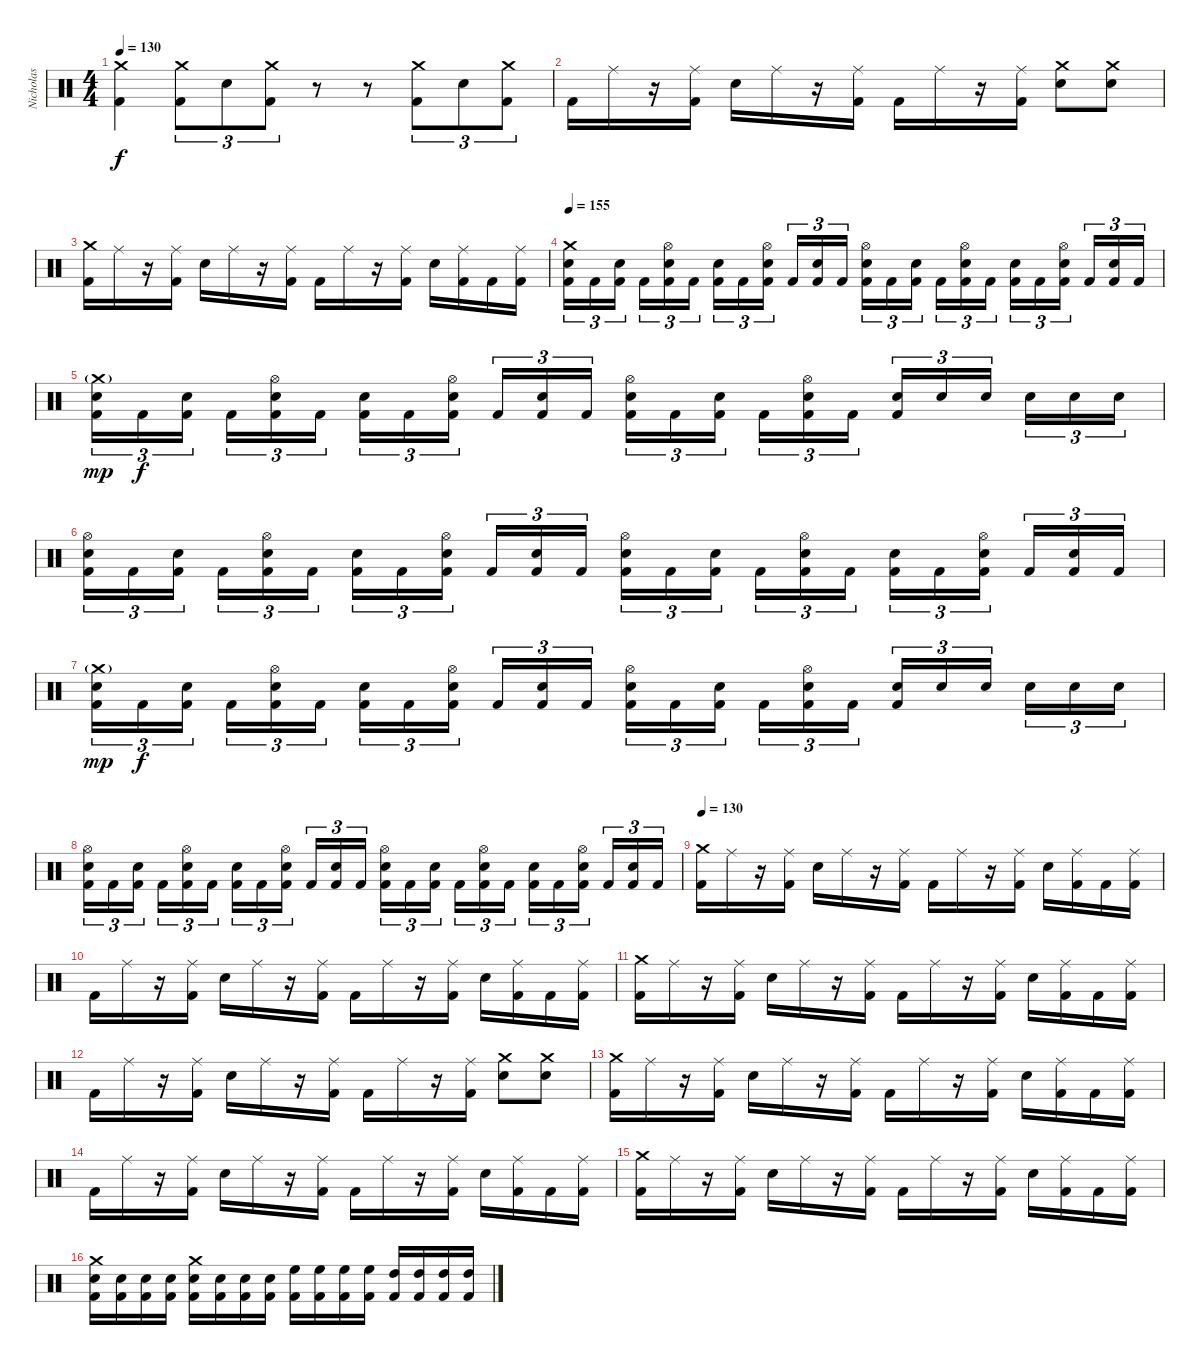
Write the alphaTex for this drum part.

\track ("Nicholas" "Nicholas") {instrument percussion}
\staff {score}
\articulation defaults
\ts (4 4)
\tempo 130
\clef neutral
\ks c
("Crash medium (hit)" "Kick (hit) 2").4{dy f} ("Crash medium (hit)" "Kick (hit) 2").8{tu (3 2)} "Snare (hit) 2".8{tu (3 2)} ("Crash medium (hit)" "Kick (hit) 2").8{tu (3 2)} r.8 r.8 ("Crash medium (hit)" "Kick (hit) 2").8{tu (3 2)} "Snare (hit) 2".8{tu (3 2)} ("Crash medium (hit)" "Kick (hit) 2").8{tu (3 2)} |
"Kick (hit) 2".16 "Ride (middle)".16 r.16 ("Ride (middle)" "Kick (hit) 2").16 "Snare (hit) 2".16 "Ride (middle)".16 r.16 ("Ride (middle)" "Kick (hit) 2").16 "Kick (hit) 2".16 "Ride (middle)".16 r.16 ("Ride (middle)" "Kick (hit) 2").16 ("Crash medium (hit)" "Snare (hit) 2").8 ("Crash medium (hit)" "Snare (hit) 2").8 |
("Crash medium (hit)" "Kick (hit) 2").16 "Ride (middle)".16 r.16 ("Ride (middle)" "Kick (hit) 2").16 "Snare (hit) 2".16 "Ride (middle)".16 r.16 ("Ride (middle)" "Kick (hit) 2").16 "Kick (hit) 2".16 "Ride (middle)".16 r.16 ("Ride (middle)" "Kick (hit) 2").16 "Snare (hit) 2".16 ("Ride (middle)" "Kick (hit) 2").16 "Kick (hit) 2".16 ("Ride (middle)" "Kick (hit) 2").16 |
\tempo 155
("Crash medium (hit)" "Snare (hit) 2" "Kick (hit) 2").16{tu (3 2)} "Kick (hit) 2".16{tu (3 2)} ("Snare (hit) 2" "Kick (hit) 2").16{tu (3 2) beam splitsecondary} "Kick (hit) 2".16{tu (3 2)} ("Hi-Hat (open)" "Snare (hit) 2" "Kick (hit) 2").16{tu (3 2)} "Kick (hit) 2".16{tu (3 2)} ("Snare (hit) 2" "Kick (hit) 2").16{tu (3 2)} "Kick (hit) 2".16{tu (3 2)} ("Hi-Hat (open)" "Snare (hit) 2" "Kick (hit) 2").16{tu (3 2) beam splitsecondary} "Kick (hit) 2".16{tu (3 2)} ("Snare (hit) 2" "Kick (hit) 2").16{tu (3 2)} "Kick (hit) 2".16{tu (3 2)} ("Hi-Hat (open)" "Snare (hit) 2" "Kick (hit) 2").16{tu (3 2)} "Kick (hit) 2".16{tu (3 2)} ("Snare (hit) 2" "Kick (hit) 2").16{tu (3 2) beam splitsecondary} "Kick (hit) 2".16{tu (3 2)} ("Hi-Hat (open)" "Snare (hit) 2" "Kick (hit) 2").16{tu (3 2)} "Kick (hit) 2".16{tu (3 2)} ("Snare (hit) 2" "Kick (hit) 2").16{tu (3 2)} "Kick (hit) 2".16{tu (3 2)} ("Hi-Hat (open)" "Snare (hit) 2" "Kick (hit) 2").16{tu (3 2) beam splitsecondary} "Kick (hit) 2".16{tu (3 2)} ("Snare (hit) 2" "Kick (hit) 2").16{tu (3 2)} "Kick (hit) 2".16{tu (3 2)} |
("Crash medium (hit)"{g} "Snare (hit) 2" "Kick (hit) 2").16{tu (3 2) dy mp} "Kick (hit) 2".16{tu (3 2) dy f} ("Snare (hit) 2" "Kick (hit) 2").16{tu (3 2) beam splitsecondary} "Kick (hit) 2".16{tu (3 2)} ("Hi-Hat (open)" "Snare (hit) 2" "Kick (hit) 2").16{tu (3 2)} "Kick (hit) 2".16{tu (3 2)} ("Snare (hit) 2" "Kick (hit) 2").16{tu (3 2)} "Kick (hit) 2".16{tu (3 2)} ("Hi-Hat (open)" "Snare (hit) 2" "Kick (hit) 2").16{tu (3 2) beam splitsecondary} "Kick (hit) 2".16{tu (3 2)} ("Snare (hit) 2" "Kick (hit) 2").16{tu (3 2)} "Kick (hit) 2".16{tu (3 2)} ("Hi-Hat (open)" "Snare (hit) 2" "Kick (hit) 2").16{tu (3 2)} "Kick (hit) 2".16{tu (3 2)} ("Snare (hit) 2" "Kick (hit) 2").16{tu (3 2) beam splitsecondary} "Kick (hit) 2".16{tu (3 2)} ("Hi-Hat (open)" "Snare (hit) 2" "Kick (hit) 2").16{tu (3 2)} "Kick (hit) 2".16{tu (3 2)} ("Snare (hit) 2" "Kick (hit) 2").16{tu (3 2)} "Snare (hit) 2".16{tu (3 2)} "Snare (hit) 2".16{tu (3 2) beam splitsecondary} "Snare (hit) 2".16{tu (3 2)} "Snare (hit) 2".16{tu (3 2)} "Snare (hit) 2".16{tu (3 2)} |
("Hi-Hat (open)" "Snare (hit) 2" "Kick (hit) 2").16{tu (3 2)} "Kick (hit) 2".16{tu (3 2)} ("Snare (hit) 2" "Kick (hit) 2").16{tu (3 2) beam splitsecondary} "Kick (hit) 2".16{tu (3 2)} ("Hi-Hat (open)" "Snare (hit) 2" "Kick (hit) 2").16{tu (3 2)} "Kick (hit) 2".16{tu (3 2)} ("Snare (hit) 2" "Kick (hit) 2").16{tu (3 2)} "Kick (hit) 2".16{tu (3 2)} ("Hi-Hat (open)" "Snare (hit) 2" "Kick (hit) 2").16{tu (3 2) beam splitsecondary} "Kick (hit) 2".16{tu (3 2)} ("Snare (hit) 2" "Kick (hit) 2").16{tu (3 2)} "Kick (hit) 2".16{tu (3 2)} ("Hi-Hat (open)" "Snare (hit) 2" "Kick (hit) 2").16{tu (3 2)} "Kick (hit) 2".16{tu (3 2)} ("Snare (hit) 2" "Kick (hit) 2").16{tu (3 2) beam splitsecondary} "Kick (hit) 2".16{tu (3 2)} ("Hi-Hat (open)" "Snare (hit) 2" "Kick (hit) 2").16{tu (3 2)} "Kick (hit) 2".16{tu (3 2)} ("Snare (hit) 2" "Kick (hit) 2").16{tu (3 2)} "Kick (hit) 2".16{tu (3 2)} ("Hi-Hat (open)" "Snare (hit) 2" "Kick (hit) 2").16{tu (3 2) beam splitsecondary} "Kick (hit) 2".16{tu (3 2)} ("Snare (hit) 2" "Kick (hit) 2").16{tu (3 2)} "Kick (hit) 2".16{tu (3 2)} |
("Crash medium (hit)"{g} "Snare (hit) 2" "Kick (hit) 2").16{tu (3 2) dy mp} "Kick (hit) 2".16{tu (3 2) dy f} ("Snare (hit) 2" "Kick (hit) 2").16{tu (3 2) beam splitsecondary} "Kick (hit) 2".16{tu (3 2)} ("Hi-Hat (open)" "Snare (hit) 2" "Kick (hit) 2").16{tu (3 2)} "Kick (hit) 2".16{tu (3 2)} ("Snare (hit) 2" "Kick (hit) 2").16{tu (3 2)} "Kick (hit) 2".16{tu (3 2)} ("Hi-Hat (open)" "Snare (hit) 2" "Kick (hit) 2").16{tu (3 2) beam splitsecondary} "Kick (hit) 2".16{tu (3 2)} ("Snare (hit) 2" "Kick (hit) 2").16{tu (3 2)} "Kick (hit) 2".16{tu (3 2)} ("Hi-Hat (open)" "Snare (hit) 2" "Kick (hit) 2").16{tu (3 2)} "Kick (hit) 2".16{tu (3 2)} ("Snare (hit) 2" "Kick (hit) 2").16{tu (3 2) beam splitsecondary} "Kick (hit) 2".16{tu (3 2)} ("Hi-Hat (open)" "Snare (hit) 2" "Kick (hit) 2").16{tu (3 2)} "Kick (hit) 2".16{tu (3 2)} ("Snare (hit) 2" "Kick (hit) 2").16{tu (3 2)} "Snare (hit) 2".16{tu (3 2)} "Snare (hit) 2".16{tu (3 2) beam splitsecondary} "Snare (hit) 2".16{tu (3 2)} "Snare (hit) 2".16{tu (3 2)} "Snare (hit) 2".16{tu (3 2)} |
("Hi-Hat (open)" "Snare (hit) 2" "Kick (hit) 2").16{tu (3 2)} "Kick (hit) 2".16{tu (3 2)} ("Snare (hit) 2" "Kick (hit) 2").16{tu (3 2) beam splitsecondary} "Kick (hit) 2".16{tu (3 2)} ("Hi-Hat (open)" "Snare (hit) 2" "Kick (hit) 2").16{tu (3 2)} "Kick (hit) 2".16{tu (3 2)} ("Snare (hit) 2" "Kick (hit) 2").16{tu (3 2)} "Kick (hit) 2".16{tu (3 2)} ("Hi-Hat (open)" "Snare (hit) 2" "Kick (hit) 2").16{tu (3 2) beam splitsecondary} "Kick (hit) 2".16{tu (3 2)} ("Snare (hit) 2" "Kick (hit) 2").16{tu (3 2)} "Kick (hit) 2".16{tu (3 2)} ("Hi-Hat (open)" "Snare (hit) 2" "Kick (hit) 2").16{tu (3 2)} "Kick (hit) 2".16{tu (3 2)} ("Snare (hit) 2" "Kick (hit) 2").16{tu (3 2) beam splitsecondary} "Kick (hit) 2".16{tu (3 2)} ("Hi-Hat (open)" "Snare (hit) 2" "Kick (hit) 2").16{tu (3 2)} "Kick (hit) 2".16{tu (3 2)} ("Snare (hit) 2" "Kick (hit) 2").16{tu (3 2)} "Kick (hit) 2".16{tu (3 2)} ("Hi-Hat (open)" "Snare (hit) 2" "Kick (hit) 2").16{tu (3 2) beam splitsecondary} "Kick (hit) 2".16{tu (3 2)} ("Snare (hit) 2" "Kick (hit) 2").16{tu (3 2)} "Kick (hit) 2".16{tu (3 2)} |
\tempo 130
("Crash medium (hit)" "Kick (hit) 2").16 "Ride (middle)".16 r.16 ("Ride (middle)" "Kick (hit) 2").16 "Snare (hit) 2".16 "Ride (middle)".16 r.16 ("Ride (middle)" "Kick (hit) 2").16 "Kick (hit) 2".16 "Ride (middle)".16 r.16 ("Ride (middle)" "Kick (hit) 2").16 "Snare (hit) 2".16 ("Ride (middle)" "Kick (hit) 2").16 "Kick (hit) 2".16 ("Ride (middle)" "Kick (hit) 2").16 |
"Kick (hit) 2".16 "Ride (middle)".16 r.16 ("Ride (middle)" "Kick (hit) 2").16 "Snare (hit) 2".16 "Ride (middle)".16 r.16 ("Ride (middle)" "Kick (hit) 2").16 "Kick (hit) 2".16 "Ride (middle)".16 r.16 ("Ride (middle)" "Kick (hit) 2").16 "Snare (hit) 2".16 ("Ride (middle)" "Kick (hit) 2").16 "Kick (hit) 2".16 ("Ride (middle)" "Kick (hit) 2").16 |
("Crash medium (hit)" "Kick (hit) 2").16 "Ride (middle)".16 r.16 ("Ride (middle)" "Kick (hit) 2").16 "Snare (hit) 2".16 "Ride (middle)".16 r.16 ("Ride (middle)" "Kick (hit) 2").16 "Kick (hit) 2".16 "Ride (middle)".16 r.16 ("Ride (middle)" "Kick (hit) 2").16 "Snare (hit) 2".16 ("Ride (middle)" "Kick (hit) 2").16 "Kick (hit) 2".16 ("Ride (middle)" "Kick (hit) 2").16 |
"Kick (hit) 2".16 "Ride (middle)".16 r.16 ("Ride (middle)" "Kick (hit) 2").16 "Snare (hit) 2".16 "Ride (middle)".16 r.16 ("Ride (middle)" "Kick (hit) 2").16 "Kick (hit) 2".16 "Ride (middle)".16 r.16 ("Ride (middle)" "Kick (hit) 2").16 ("Crash medium (hit)" "Snare (hit) 2").8 ("Crash medium (hit)" "Snare (hit) 2").8 |
("Crash medium (hit)" "Kick (hit) 2").16 "Ride (middle)".16 r.16 ("Ride (middle)" "Kick (hit) 2").16 "Snare (hit) 2".16 "Ride (middle)".16 r.16 ("Ride (middle)" "Kick (hit) 2").16 "Kick (hit) 2".16 "Ride (middle)".16 r.16 ("Ride (middle)" "Kick (hit) 2").16 "Snare (hit) 2".16 ("Ride (middle)" "Kick (hit) 2").16 "Kick (hit) 2".16 ("Ride (middle)" "Kick (hit) 2").16 |
"Kick (hit) 2".16 "Ride (middle)".16 r.16 ("Ride (middle)" "Kick (hit) 2").16 "Snare (hit) 2".16 "Ride (middle)".16 r.16 ("Ride (middle)" "Kick (hit) 2").16 "Kick (hit) 2".16 "Ride (middle)".16 r.16 ("Ride (middle)" "Kick (hit) 2").16 "Snare (hit) 2".16 ("Ride (middle)" "Kick (hit) 2").16 "Kick (hit) 2".16 ("Ride (middle)" "Kick (hit) 2").16 |
("Crash medium (hit)" "Kick (hit) 2").16 "Ride (middle)".16 r.16 ("Ride (middle)" "Kick (hit) 2").16 "Snare (hit) 2".16 "Ride (middle)".16 r.16 ("Ride (middle)" "Kick (hit) 2").16 "Kick (hit) 2".16 "Ride (middle)".16 r.16 ("Ride (middle)" "Kick (hit) 2").16 "Snare (hit) 2".16 ("Ride (middle)" "Kick (hit) 2").16 "Kick (hit) 2".16 ("Ride (middle)" "Kick (hit) 2").16 |
("Crash medium (hit)" "Snare (hit) 2" "Kick (hit) 2").16 ("Snare (hit) 2" "Kick (hit) 2").16 ("Snare (hit) 2" "Kick (hit) 2").16 ("Snare (hit) 2" "Kick (hit) 2").16 ("Crash medium (hit)" "Snare (hit) 2" "Kick (hit) 2").16 ("Snare (hit) 2" "Kick (hit) 2").16 ("Snare (hit) 2" "Kick (hit) 2").16 ("Snare (hit) 2" "Kick (hit) 2").16 ("High Floor Tom (hit)" "Kick (hit) 2").16 ("High Floor Tom (hit)" "Kick (hit) 2").16 ("High Floor Tom (hit)" "Kick (hit) 2").16 ("High Floor Tom (hit)" "Kick (hit) 2").16 ("High Tom (hit)" "Kick (hit) 2").16 ("High Tom (hit)" "Kick (hit) 2").16 ("High Tom (hit)" "Kick (hit) 2").16 ("High Tom (hit)" "Kick (hit) 2").16
